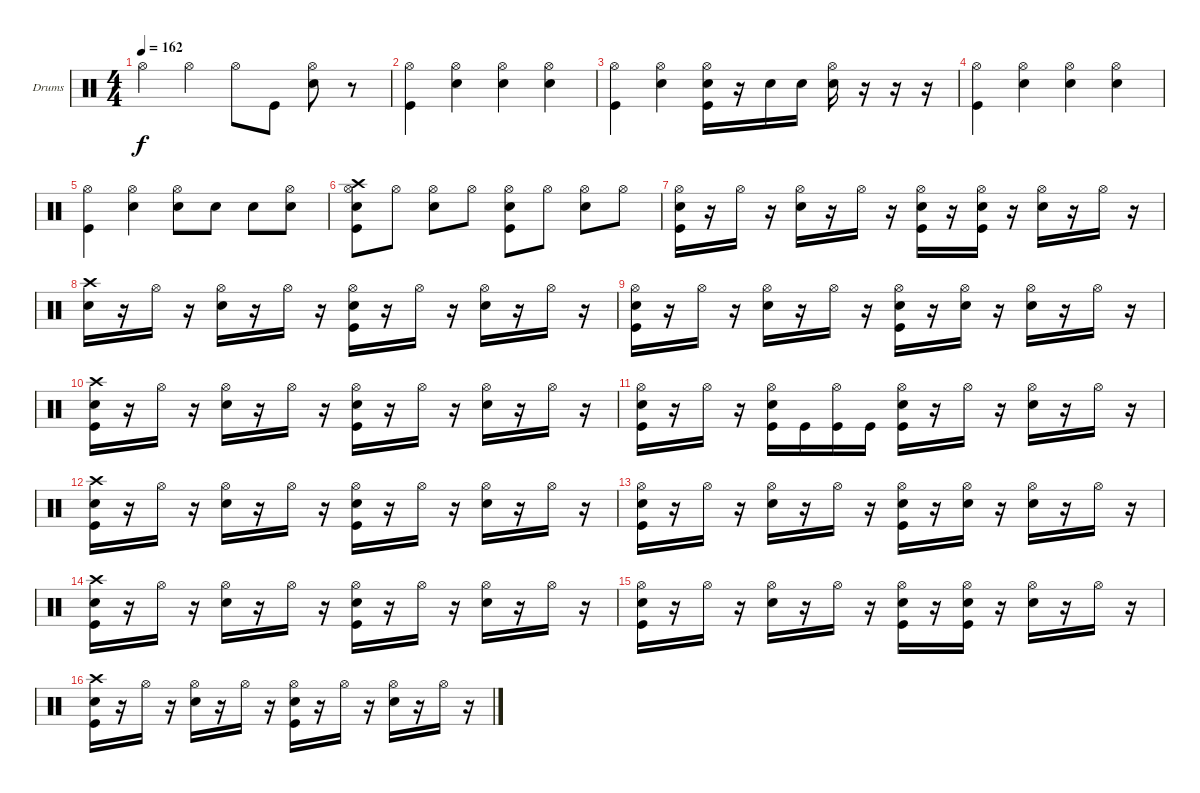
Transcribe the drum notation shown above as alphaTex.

\bracketExtendMode groupsimilarinstruments
\firstSystemTrackNameOrientation horizontal
\otherSystemsTrackNameOrientation horizontal
\track ("Drumkit" "Drums") {instrument percussion}
\staff {score}
\articulation defaults
\ts (4 4)
\tempo 162
\clef neutral
\ks c "Hi-Hat (open)".4{dy f} "Hi-Hat (open)".4 "Hi-Hat (open)".8 "Kick (hit)".8
("Hi-Hat (open)" "Snare (hit) 2").8 r.8 |
("Hi-Hat (open)" "Kick (hit)").4 ("Snare (hit) 2" "Hi-Hat (open)").4 ("Hi-Hat (open)" "Snare (hit) 2").4 ("Snare (hit) 2" "Hi-Hat (open)").4 |
("Hi-Hat (open)" "Kick (hit)").4 ("Hi-Hat (open)" "Snare (hit) 2").4 ("Snare (hit) 2" "Hi-Hat (open)" "Kick (hit)").16 r.16 "Snare (hit) 2".16 "Snare (hit) 2".16 ("Snare (hit) 2" "Hi-Hat (open)").16 r.16 r.16 r.16 |
("Hi-Hat (open)" "Kick (hit)").4 ("Snare (hit) 2" "Hi-Hat (open)").4 ("Hi-Hat (open)" "Snare (hit) 2").4 ("Snare (hit) 2" "Hi-Hat (open)").4 |
("Hi-Hat (open)" "Kick (hit)").4 ("Hi-Hat (open)" "Snare (hit) 2").4 ("Hi-Hat (open)" "Snare (hit) 2").8 "Snare (hit) 2".8 "Snare (hit) 2".8 ("Hi-Hat (open)" "Snare (hit) 2").8 |
("Crash high (hit)" "Snare (hit) 2" "Hi-Hat (open)" "Kick (hit)").8 "Hi-Hat (open)".8 ("Hi-Hat (open)" "Snare (hit) 2").8 "Hi-Hat (open)".8 ("Snare (hit) 2" "Hi-Hat (open)" "Kick (hit)").8 "Hi-Hat (open)".8 ("Hi-Hat (open)" "Snare (hit) 2").8 "Hi-Hat (open)".8 |
("Snare (hit) 2" "Hi-Hat (open)" "Kick (hit)").16 r.16 "Hi-Hat (open)".16 r.16 ("Snare (hit) 2" "Hi-Hat (open)").16 r.16 "Hi-Hat (open)".16 r.16 ("Snare (hit) 2" "Hi-Hat (open)" "Kick (hit)").16 r.16 ("Snare (hit) 2" "Kick (hit)" "Hi-Hat (open)").16 r.16 ("Snare (hit) 2" "Hi-Hat (open)").16 r.16 "Hi-Hat (open)".16 r.16 |
("Crash high (hit)" "Snare (hit) 2").16 r.16 "Hi-Hat (open)".16 r.16 ("Snare (hit) 2" "Hi-Hat (open)").16 r.16 "Hi-Hat (open)".16 r.16 ("Snare (hit) 2" "Hi-Hat (open)" "Kick (hit)").16 r.16 "Hi-Hat (open)".16 r.16 ("Snare (hit) 2" "Hi-Hat (open)").16 r.16 "Hi-Hat (open)".16 r.16 |
("Snare (hit) 2" "Hi-Hat (open)" "Kick (hit)").16 r.16 "Hi-Hat (open)".16 r.16 ("Snare (hit) 2" "Hi-Hat (open)").16 r.16 "Hi-Hat (open)".16 r.16 ("Snare (hit) 2" "Hi-Hat (open)" "Kick (hit)").16 r.16 ("Hi-Hat (open)" "Snare (hit) 2").16 r.16 ("Snare (hit) 2" "Hi-Hat (open)").16 r.16 "Hi-Hat (open)".16 r.16 |
("Crash high (hit)" "Snare (hit) 2" "Kick (hit)").16 r.16 "Hi-Hat (open)".16 r.16 ("Snare (hit) 2" "Hi-Hat (open)").16 r.16 "Hi-Hat (open)".16 r.16 ("Snare (hit) 2" "Hi-Hat (open)" "Kick (hit)").16 r.16 "Hi-Hat (open)".16 r.16 ("Snare (hit) 2" "Hi-Hat (open)").16 r.16 "Hi-Hat (open)".16 r.16 |
("Snare (hit) 2" "Hi-Hat (open)" "Kick (hit)").16 r.16 "Hi-Hat (open)".16 r.16 ("Snare (hit) 2" "Hi-Hat (open)" "Kick (hit)").16 "Kick (hit)".16 ("Hi-Hat (open)" "Kick (hit)").16 "Kick (hit)".16 ("Snare (hit) 2" "Hi-Hat (open)" "Kick (hit)").16 r.16 "Hi-Hat (open)".16 r.16 ("Snare (hit) 2" "Hi-Hat (open)").16 r.16 "Hi-Hat (open)".16 r.16 |
("Crash high (hit)" "Snare (hit) 2" "Kick (hit)").16 r.16 "Hi-Hat (open)".16 r.16 ("Snare (hit) 2" "Hi-Hat (open)").16 r.16 "Hi-Hat (open)".16 r.16 ("Snare (hit) 2" "Hi-Hat (open)" "Kick (hit)").16 r.16 "Hi-Hat (open)".16 r.16 ("Snare (hit) 2" "Hi-Hat (open)").16 r.16 "Hi-Hat (open)".16 r.16 |
("Snare (hit) 2" "Hi-Hat (open)" "Kick (hit)").16 r.16 "Hi-Hat (open)".16 r.16 ("Snare (hit) 2" "Hi-Hat (open)").16 r.16 "Hi-Hat (open)".16 r.16 ("Snare (hit) 2" "Hi-Hat (open)" "Kick (hit)").16 r.16 ("Hi-Hat (open)" "Snare (hit) 2").16 r.16 ("Snare (hit) 2" "Hi-Hat (open)").16 r.16 "Hi-Hat (open)".16 r.16 |
("Crash high (hit)" "Snare (hit) 2" "Kick (hit)").16 r.16 "Hi-Hat (open)".16 r.16 ("Snare (hit) 2" "Hi-Hat (open)").16 r.16 "Hi-Hat (open)".16 r.16 ("Snare (hit) 2" "Hi-Hat (open)" "Kick (hit)").16 r.16 "Hi-Hat (open)".16 r.16 ("Snare (hit) 2" "Hi-Hat (open)").16 r.16 "Hi-Hat (open)".16 r.16 |
("Snare (hit) 2" "Hi-Hat (open)" "Kick (hit)").16 r.16 "Hi-Hat (open)".16 r.16 ("Snare (hit) 2" "Hi-Hat (open)").16 r.16 "Hi-Hat (open)".16 r.16 ("Snare (hit) 2" "Hi-Hat (open)" "Kick (hit)").16 r.16 ("Snare (hit) 2" "Kick (hit)" "Hi-Hat (open)").16 r.16 ("Snare (hit) 2" "Hi-Hat (open)").16 r.16 "Hi-Hat (open)".16 r.16 |
("Crash high (hit)" "Snare (hit) 2" "Kick (hit)").16 r.16 "Hi-Hat (open)".16 r.16 ("Snare (hit) 2" "Hi-Hat (open)").16 r.16 "Hi-Hat (open)".16 r.16 ("Snare (hit) 2" "Hi-Hat (open)" "Kick (hit)").16 r.16 "Hi-Hat (open)".16 r.16 ("Snare (hit) 2" "Hi-Hat (open)").16 r.16 "Hi-Hat (open)".16 r.16
